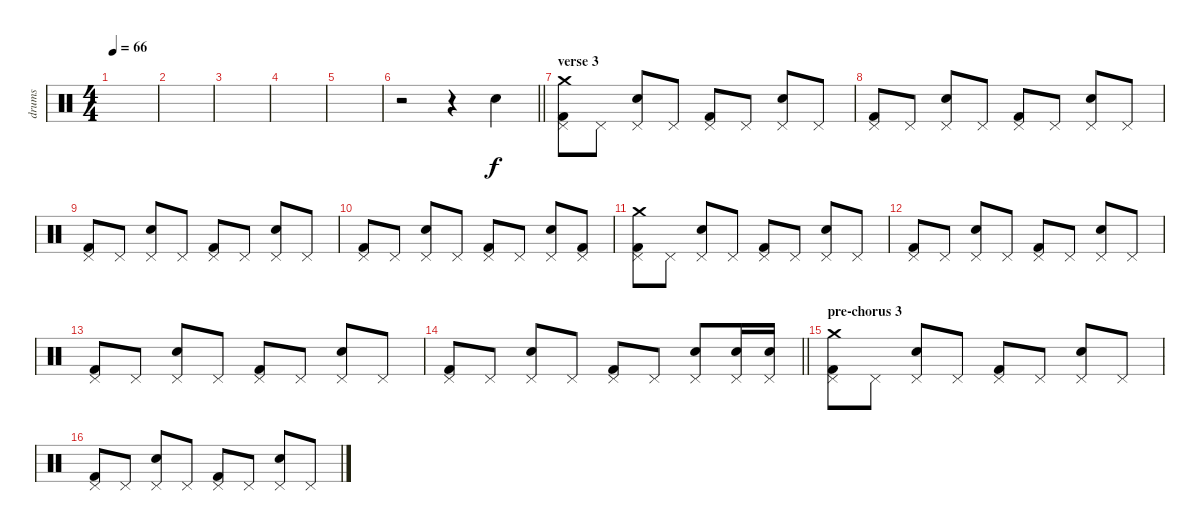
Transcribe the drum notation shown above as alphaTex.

\track ("drums" "drums") {instrument percussion}
\staff {score}
\articulation defaults
\ts (4 4)
\tempo 66
\clef neutral
\ks c
|
|
|
|
|
\barLineRight lightlight
r.2 r.4 "Snare (hit) 2".4 |
\section ("" "verse 3")
("Kick (hit) 2" "Pedal Hi-Hat (hit)" "Crash medium (hit)").8 "Pedal Hi-Hat (hit)".8 ("Snare (hit) 2" "Pedal Hi-Hat (hit)").8 "Pedal Hi-Hat (hit)".8 ("Kick (hit) 2" "Pedal Hi-Hat (hit)").8 "Pedal Hi-Hat (hit)".8 ("Snare (hit) 2" "Pedal Hi-Hat (hit)").8 "Pedal Hi-Hat (hit)".8 |
("Kick (hit) 2" "Pedal Hi-Hat (hit)").8 "Pedal Hi-Hat (hit)".8 ("Snare (hit) 2" "Pedal Hi-Hat (hit)").8 "Pedal Hi-Hat (hit)".8 ("Kick (hit) 2" "Pedal Hi-Hat (hit)").8 "Pedal Hi-Hat (hit)".8 ("Snare (hit) 2" "Pedal Hi-Hat (hit)").8 "Pedal Hi-Hat (hit)".8 |
("Kick (hit) 2" "Pedal Hi-Hat (hit)").8 "Pedal Hi-Hat (hit)".8 ("Snare (hit) 2" "Pedal Hi-Hat (hit)").8 "Pedal Hi-Hat (hit)".8 ("Kick (hit) 2" "Pedal Hi-Hat (hit)").8 "Pedal Hi-Hat (hit)".8 ("Snare (hit) 2" "Pedal Hi-Hat (hit)").8 "Pedal Hi-Hat (hit)".8 |
("Kick (hit) 2" "Pedal Hi-Hat (hit)").8 "Pedal Hi-Hat (hit)".8 ("Snare (hit) 2" "Pedal Hi-Hat (hit)").8 "Pedal Hi-Hat (hit)".8 ("Kick (hit) 2" "Pedal Hi-Hat (hit)").8 "Pedal Hi-Hat (hit)".8 ("Snare (hit) 2" "Pedal Hi-Hat (hit)").8 ("Kick (hit) 2" "Pedal Hi-Hat (hit)").8 |
("Kick (hit) 2" "Pedal Hi-Hat (hit)" "Crash medium (hit)").8 "Pedal Hi-Hat (hit)".8 ("Snare (hit) 2" "Pedal Hi-Hat (hit)").8 "Pedal Hi-Hat (hit)".8 ("Kick (hit) 2" "Pedal Hi-Hat (hit)").8 "Pedal Hi-Hat (hit)".8 ("Snare (hit) 2" "Pedal Hi-Hat (hit)").8 "Pedal Hi-Hat (hit)".8 |
("Kick (hit) 2" "Pedal Hi-Hat (hit)").8 "Pedal Hi-Hat (hit)".8 ("Snare (hit) 2" "Pedal Hi-Hat (hit)").8 "Pedal Hi-Hat (hit)".8 ("Kick (hit) 2" "Pedal Hi-Hat (hit)").8 "Pedal Hi-Hat (hit)".8 ("Snare (hit) 2" "Pedal Hi-Hat (hit)").8 "Pedal Hi-Hat (hit)".8 |
("Kick (hit) 2" "Pedal Hi-Hat (hit)").8 "Pedal Hi-Hat (hit)".8 ("Snare (hit) 2" "Pedal Hi-Hat (hit)").8 "Pedal Hi-Hat (hit)".8 ("Kick (hit) 2" "Pedal Hi-Hat (hit)").8 "Pedal Hi-Hat (hit)".8 ("Snare (hit) 2" "Pedal Hi-Hat (hit)").8 "Pedal Hi-Hat (hit)".8 |
\barLineRight lightlight
("Kick (hit) 2" "Pedal Hi-Hat (hit)").8 "Pedal Hi-Hat (hit)".8 ("Snare (hit) 2" "Pedal Hi-Hat (hit)").8 "Pedal Hi-Hat (hit)".8 ("Kick (hit) 2" "Pedal Hi-Hat (hit)").8 "Pedal Hi-Hat (hit)".8 ("Snare (hit) 2" "Pedal Hi-Hat (hit)").8 ("Snare (hit) 2" "Pedal Hi-Hat (hit)").16 ("Snare (hit) 2" "Pedal Hi-Hat (hit)").16 |
\section ("" "pre-chorus 3")
("Kick (hit) 2" "Pedal Hi-Hat (hit)" "Crash medium (hit)").8 "Pedal Hi-Hat (hit)".8 ("Snare (hit) 2" "Pedal Hi-Hat (hit)").8 "Pedal Hi-Hat (hit)".8 ("Kick (hit) 2" "Pedal Hi-Hat (hit)").8 "Pedal Hi-Hat (hit)".8 ("Snare (hit) 2" "Pedal Hi-Hat (hit)").8 "Pedal Hi-Hat (hit)".8 |
("Kick (hit) 2" "Pedal Hi-Hat (hit)").8 "Pedal Hi-Hat (hit)".8 ("Snare (hit) 2" "Pedal Hi-Hat (hit)").8 "Pedal Hi-Hat (hit)".8 ("Kick (hit) 2" "Pedal Hi-Hat (hit)").8 "Pedal Hi-Hat (hit)".8 ("Snare (hit) 2" "Pedal Hi-Hat (hit)").8 "Pedal Hi-Hat (hit)".8
